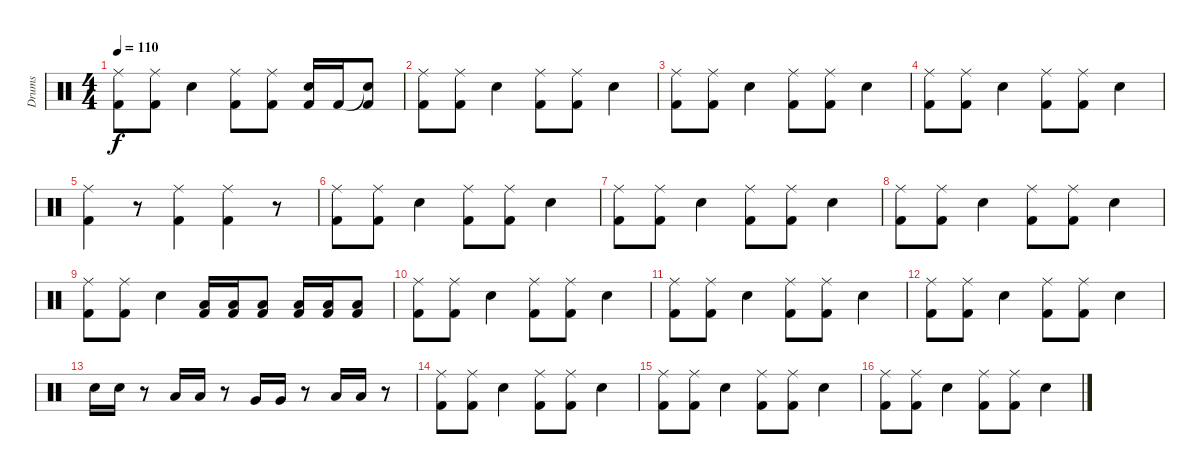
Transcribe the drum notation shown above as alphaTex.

\track ("Drums" "Drums") {instrument percussion}
\staff {score}
\articulation defaults
\ts (4 4)
\tempo 110
\clef neutral
\ks c
("Ride (middle)" "Kick (hit) 2").8{dy f} ("Ride (middle)" "Kick (hit) 2").8 "Snare (hit) 2".4 ("Ride (middle)" "Kick (hit) 2").8 ("Ride (middle)" "Kick (hit) 2").8 ("Snare (hit) 2" "Kick (hit) 2").16 "Kick (hit) 2".16 ("Snare (hit)"{t} "Kick (hit) 2").8 |
("Ride (middle)" "Kick (hit) 2").8 ("Ride (middle)" "Kick (hit) 2").8 "Snare (hit) 2".4 ("Ride (middle)" "Kick (hit) 2").8 ("Ride (middle)" "Kick (hit) 2").8 "Snare (hit) 2".4 |
("Ride (middle)" "Kick (hit) 2").8 ("Ride (middle)" "Kick (hit) 2").8 "Snare (hit) 2".4 ("Ride (middle)" "Kick (hit) 2").8 ("Ride (middle)" "Kick (hit) 2").8 "Snare (hit) 2".4 |
("Ride (middle)" "Kick (hit) 2").8 ("Ride (middle)" "Kick (hit) 2").8 "Snare (hit) 2".4 ("Ride (middle)" "Kick (hit) 2").8 ("Ride (middle)" "Kick (hit) 2").8 "Snare (hit) 2".4 |
("Ride (middle)" "Kick (hit) 2").4 r.8 ("Ride (middle)" "Kick (hit) 2").4 ("Ride (middle)" "Kick (hit) 2").4 r.8 |
("Ride (middle)" "Kick (hit) 2").8 ("Ride (middle)" "Kick (hit) 2").8 "Snare (hit) 2".4 ("Ride (middle)" "Kick (hit) 2").8 ("Ride (middle)" "Kick (hit) 2").8 "Snare (hit) 2".4 |
("Ride (middle)" "Kick (hit) 2").8 ("Ride (middle)" "Kick (hit) 2").8 "Snare (hit) 2".4 ("Ride (middle)" "Kick (hit) 2").8 ("Ride (middle)" "Kick (hit) 2").8 "Snare (hit) 2".4 |
("Ride (middle)" "Kick (hit) 2").8 ("Ride (middle)" "Kick (hit) 2").8 "Snare (hit) 2".4 ("Ride (middle)" "Kick (hit) 2").8 ("Ride (middle)" "Kick (hit) 2").8 "Snare (hit) 2".4 |
("Ride (middle)" "Kick (hit) 2").8 ("Ride (middle)" "Kick (hit) 2").8 "Snare (hit) 2".4 ("Low Tom (hit)" "Kick (hit) 2").16 ("Low Tom (hit)" "Kick (hit) 2").16 ("Low Tom (hit)" "Kick (hit) 2").8 ("Low Floor Tom (hit)" "Kick (hit) 2").16 ("Low Floor Tom (hit)" "Kick (hit) 2").16 ("Low Floor Tom (hit)" "Kick (hit) 2").8 |
("Ride (middle)" "Kick (hit) 2").8 ("Ride (middle)" "Kick (hit) 2").8 "Snare (hit) 2".4 ("Ride (middle)" "Kick (hit) 2").8 ("Ride (middle)" "Kick (hit) 2").8 "Snare (hit) 2".4 |
("Ride (middle)" "Kick (hit) 2").8 ("Ride (middle)" "Kick (hit) 2").8 "Snare (hit) 2".4 ("Ride (middle)" "Kick (hit) 2").8 ("Ride (middle)" "Kick (hit) 2").8 "Snare (hit) 2".4 |
("Ride (middle)" "Kick (hit) 2").8 ("Ride (middle)" "Kick (hit) 2").8 "Snare (hit) 2".4 ("Ride (middle)" "Kick (hit) 2").8 ("Ride (middle)" "Kick (hit) 2").8 "Snare (hit) 2".4 |
"Electric Snare (hit)".16 "Electric Snare (hit)".16 r.8 "Low Tom (hit)".16 "Low Tom (hit)".16 r.8 "Very Low Tom (hit)".16 "Very Low Tom (hit)".16 r.8 "Low Floor Tom (hit)".16 "Low Floor Tom (hit)".16 r.8 |
("Ride (middle)" "Kick (hit) 2").8 ("Ride (middle)" "Kick (hit) 2").8 "Snare (hit) 2".4 ("Ride (middle)" "Kick (hit) 2").8 ("Ride (middle)" "Kick (hit) 2").8 "Snare (hit) 2".4 |
("Ride (middle)" "Kick (hit) 2").8 ("Ride (middle)" "Kick (hit) 2").8 "Snare (hit) 2".4 ("Ride (middle)" "Kick (hit) 2").8 ("Ride (middle)" "Kick (hit) 2").8 "Snare (hit) 2".4 |
("Ride (middle)" "Kick (hit) 2").8 ("Ride (middle)" "Kick (hit) 2").8 "Snare (hit) 2".4 ("Ride (middle)" "Kick (hit) 2").8 ("Ride (middle)" "Kick (hit) 2").8 "Snare (hit) 2".4
